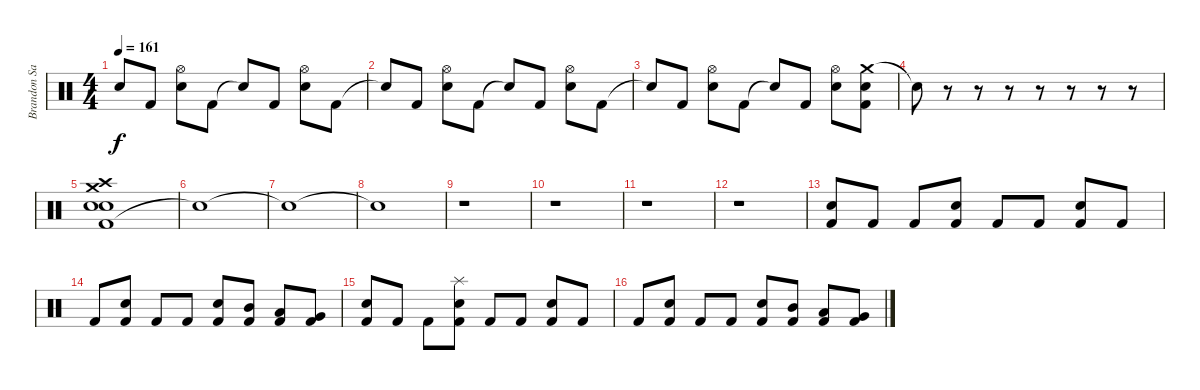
\track ("Brandon Saller" "Brandon Sa") {instrument percussion}
\staff {score}
\articulation defaults
\ts (4 4)
\tempo 161
\clef neutral
\ks c "Snare (hit)"{t}.8{dy f} "Kick (hit) 2".8
("Hi-Hat (open)" "Electric Snare (hit)").8 "Kick (hit) 2".8 "Snare (hit)"{t}.8 "Kick (hit) 2".8 ("Hi-Hat (open)" "Electric Snare (hit)").8 "Kick (hit) 2".8 |
"Snare (hit)"{t}.8 "Kick (hit) 2".8 ("Hi-Hat (open)" "Electric Snare (hit)").8 "Kick (hit) 2".8 "Snare (hit)"{t}.8 "Kick (hit) 2".8 ("Hi-Hat (open)" "Electric Snare (hit)").8 "Kick (hit) 2".8 |
"Snare (hit)"{t}.8 "Kick (hit) 2".8 ("Hi-Hat (open)" "Electric Snare (hit)").8 "Kick (hit) 2".8 "Snare (hit)"{t}.8 "Kick (hit) 2".8 ("Hi-Hat (open)" "Electric Snare (hit)").8 ("Crash medium (hit)" "Snare (hit) 2" "Kick (hit) 2").8 |
"Snare (hit)"{t}.8 r.8 r.8 r.8 r.8 r.8 r.8 r.8 |
("Kick (hit) 2" "Snare (hit) 2" "Electric Snare (hit)" "Crash high (hit)" "Crash medium (hit)").1 |
"Snare (hit)"{t}.1 |
"Snare (hit)"{t}.1 |
"Snare (hit)"{t}.1 |
r.1 |
r.1 |
r.1 |
r.1 |
("Electric Snare (hit)" "Kick (hit) 2").8 "Kick (hit) 2".8 "Kick (hit) 2".8 ("Snare (hit) 2" "Kick (hit) 2").8 "Kick (hit) 2".8 "Kick (hit) 2".8 ("Electric Snare (hit)" "Kick (hit) 2").8 "Kick (hit) 2".8 |
"Kick (hit) 2".8 ("Snare (hit) 2" "Kick (hit) 2").8 "Kick (hit) 2".8 "Kick (hit) 2".8 ("Snare (hit) 2" "Kick (hit) 2").8 ("Mid Tom (hit)" "Kick (hit) 2").8 ("Low Tom (hit)" "Kick (hit) 2").8 ("Very Low Tom (hit)" "Kick (hit) 2").8 |
("Electric Snare (hit)" "Kick (hit) 2").8 "Kick (hit) 2".8 "Kick (hit) 2".8 ("Snare (hit) 2" "Kick (hit) 2" "Splash (hit)").8 "Kick (hit) 2".8 "Kick (hit) 2".8 ("Electric Snare (hit)" "Kick (hit) 2").8 "Kick (hit) 2".8 |
"Kick (hit) 2".8 ("Snare (hit) 2" "Kick (hit) 2").8 "Kick (hit) 2".8 "Kick (hit) 2".8 ("Snare (hit) 2" "Kick (hit) 2").8 ("Mid Tom (hit)" "Kick (hit) 2").8 ("Low Tom (hit)" "Kick (hit) 2").8 ("Very Low Tom (hit)" "Kick (hit) 2").8
